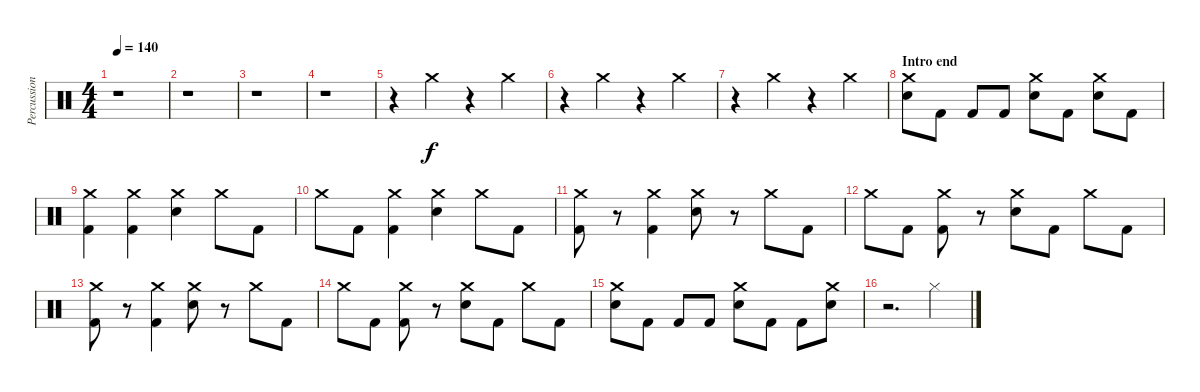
\track ("Percussion" "Percussion") {instrument percussion}
\staff {score}
\articulation defaults
\ts (4 4)
\tempo 140
\clef neutral
\ks c
r.1{dy f} |
r.1 |
r.1 |
r.1 |
r.4 "Crash medium (hit)".4 r.4 "Crash medium (hit)".4 |
r.4 "Crash medium (hit)".4 r.4 "Crash medium (hit)".4 |
r.4 "Crash medium (hit)".4 r.4 "Crash medium (hit)".4 |
\section ("" "Intro end")
("Snare (hit) 2" "Crash medium (hit)").8 "Kick (hit) 2".8 "Kick (hit) 2".8 "Kick (hit) 2".8 ("Snare (hit) 2" "Crash medium (hit)").8 "Kick (hit) 2".8 ("Snare (hit) 2" "Crash medium (hit)").8 "Kick (hit) 2".8 |
("Kick (hit) 2" "Crash medium (hit)").4 ("Kick (hit) 2" "Crash medium (hit)").4 ("Snare (hit) 2" "Crash medium (hit)").4 "Crash medium (hit)".8 "Kick (hit) 2".8 |
"Crash medium (hit)".8 "Kick (hit) 2".8 ("Kick (hit) 2" "Crash medium (hit)").4 ("Snare (hit) 2" "Crash medium (hit)").4 "Crash medium (hit)".8 "Kick (hit) 2".8 |
("Kick (hit) 2" "Crash medium (hit)").8 r.8 ("Kick (hit) 2" "Crash medium (hit)").4 ("Snare (hit) 2" "Crash medium (hit)").8 r.8 "Crash medium (hit)".8 "Kick (hit) 2".8 |
"Crash medium (hit)".8 "Kick (hit) 2".8 ("Kick (hit) 2" "Crash medium (hit)").8 r.8 ("Snare (hit) 2" "Crash medium (hit)").8 "Kick (hit) 2".8 "Crash medium (hit)".8 "Kick (hit) 2".8 |
("Kick (hit) 2" "Crash medium (hit)").8 r.8 ("Kick (hit) 2" "Crash medium (hit)").4 ("Snare (hit) 2" "Crash medium (hit)").8 r.8 "Crash medium (hit)".8 "Kick (hit) 2".8 |
"Crash medium (hit)".8 "Kick (hit) 2".8 ("Kick (hit) 2" "Crash medium (hit)").8 r.8 ("Snare (hit) 2" "Crash medium (hit)").8 "Kick (hit) 2".8 "Crash medium (hit)".8 "Kick (hit) 2".8 |
("Snare (hit) 2" "Crash medium (hit)").8 "Kick (hit) 2".8 "Kick (hit) 2".8 "Kick (hit) 2".8 ("Snare (hit) 2" "Crash medium (hit)").8 "Kick (hit) 2".8 "Kick (hit) 2".8 ("Snare (hit) 2" "Crash medium (hit)").8 |
r.2{d} "Hi-Hat (closed)".4
